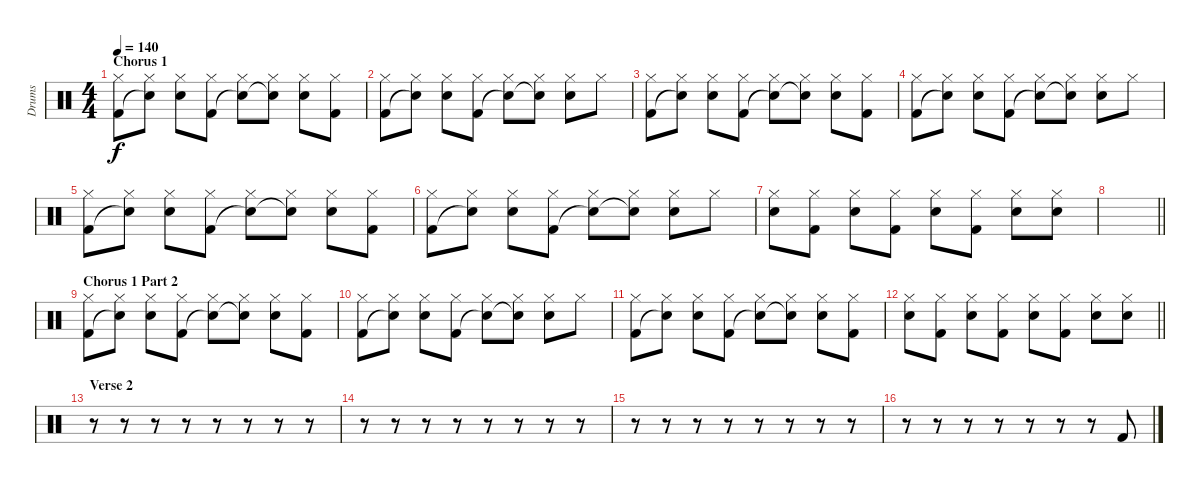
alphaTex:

\track ("Drums" "Drums") {instrument percussion}
\staff {score}
\articulation defaults
\ts (4 4)
\section ("" "Chorus 1")
\tempo 140
\clef neutral
\ks c
("Hi-Hat (closed)" "Kick (hit) 2").8{dy f} ("Hi-Hat (closed)" "Snare (hit)"{t}).8 ("Hi-Hat (closed)" "Snare (hit) 2").8 ("Hi-Hat (closed)" "Kick (hit) 2").8 ("Hi-Hat (closed)" "Snare (hit)"{t}).8 ("Hi-Hat (closed)" "Snare (hit) 2"{t}).8 ("Hi-Hat (closed)" "Snare (hit) 2").8 ("Hi-Hat (closed)" "Kick (hit) 2").8 |
("Hi-Hat (closed)" "Kick (hit) 2").8 ("Hi-Hat (closed)" "Snare (hit)"{t}).8 ("Hi-Hat (closed)" "Snare (hit) 2").8 ("Hi-Hat (closed)" "Kick (hit) 2").8 ("Hi-Hat (closed)" "Snare (hit)"{t}).8 ("Hi-Hat (closed)" "Snare (hit) 2"{t}).8 ("Hi-Hat (closed)" "Snare (hit) 2").8 "Hi-Hat (closed)".8 |
("Hi-Hat (closed)" "Kick (hit) 2").8 ("Hi-Hat (closed)" "Snare (hit)"{t}).8 ("Hi-Hat (closed)" "Snare (hit) 2").8 ("Hi-Hat (closed)" "Kick (hit) 2").8 ("Hi-Hat (closed)" "Snare (hit)"{t}).8 ("Hi-Hat (closed)" "Snare (hit) 2"{t}).8 ("Hi-Hat (closed)" "Snare (hit) 2").8 ("Hi-Hat (closed)" "Kick (hit) 2").8 |
("Hi-Hat (closed)" "Kick (hit) 2").8 ("Hi-Hat (closed)" "Snare (hit)"{t}).8 ("Hi-Hat (closed)" "Snare (hit) 2").8 ("Hi-Hat (closed)" "Kick (hit) 2").8 ("Hi-Hat (closed)" "Snare (hit)"{t}).8 ("Hi-Hat (closed)" "Snare (hit) 2"{t}).8 ("Hi-Hat (closed)" "Snare (hit) 2").8 "Hi-Hat (closed)".8 |
("Hi-Hat (closed)" "Kick (hit) 2").8 ("Hi-Hat (closed)" "Snare (hit)"{t}).8 ("Hi-Hat (closed)" "Snare (hit) 2").8 ("Hi-Hat (closed)" "Kick (hit) 2").8 ("Hi-Hat (closed)" "Snare (hit)"{t}).8 ("Hi-Hat (closed)" "Snare (hit) 2"{t}).8 ("Hi-Hat (closed)" "Snare (hit) 2").8 ("Hi-Hat (closed)" "Kick (hit) 2").8 |
("Hi-Hat (closed)" "Kick (hit) 2").8 ("Hi-Hat (closed)" "Snare (hit)"{t}).8 ("Hi-Hat (closed)" "Snare (hit) 2").8 ("Hi-Hat (closed)" "Kick (hit) 2").8 ("Hi-Hat (closed)" "Snare (hit)"{t}).8 ("Hi-Hat (closed)" "Snare (hit) 2"{t}).8 ("Hi-Hat (closed)" "Snare (hit) 2").8 "Hi-Hat (closed)".8 |
("Hi-Hat (closed)" "Snare (hit) 2").8 ("Hi-Hat (closed)" "Kick (hit) 2").8 ("Hi-Hat (closed)" "Snare (hit) 2").8 ("Hi-Hat (closed)" "Kick (hit) 2").8 ("Hi-Hat (closed)" "Snare (hit) 2").8 ("Hi-Hat (closed)" "Kick (hit) 2").8 ("Hi-Hat (closed)" "Snare (hit) 2").8 ("Hi-Hat (closed)" "Snare (hit) 2").8 |
\barLineRight lightlight
|
\section ("" "Chorus 1 Part 2")
("Hi-Hat (closed)" "Kick (hit) 2").8 ("Hi-Hat (closed)" "Snare (hit)"{t}).8 ("Hi-Hat (closed)" "Snare (hit) 2").8 ("Hi-Hat (closed)" "Kick (hit) 2").8 ("Hi-Hat (closed)" "Snare (hit)"{t}).8 ("Hi-Hat (closed)" "Snare (hit) 2"{t}).8 ("Hi-Hat (closed)" "Snare (hit) 2").8 ("Hi-Hat (closed)" "Kick (hit) 2").8 |
("Hi-Hat (closed)" "Kick (hit) 2").8 ("Hi-Hat (closed)" "Snare (hit)"{t}).8 ("Hi-Hat (closed)" "Snare (hit) 2").8 ("Hi-Hat (closed)" "Kick (hit) 2").8 ("Hi-Hat (closed)" "Snare (hit)"{t}).8 ("Hi-Hat (closed)" "Snare (hit) 2"{t}).8 ("Hi-Hat (closed)" "Snare (hit) 2").8 "Hi-Hat (closed)".8 |
("Hi-Hat (closed)" "Kick (hit) 2").8 ("Hi-Hat (closed)" "Snare (hit)"{t}).8 ("Hi-Hat (closed)" "Snare (hit) 2").8 ("Hi-Hat (closed)" "Kick (hit) 2").8 ("Hi-Hat (closed)" "Snare (hit)"{t}).8 ("Hi-Hat (closed)" "Snare (hit) 2"{t}).8 ("Hi-Hat (closed)" "Snare (hit) 2").8 ("Hi-Hat (closed)" "Kick (hit) 2").8 |
\barLineRight lightlight
("Hi-Hat (closed)" "Snare (hit) 2").8 ("Hi-Hat (closed)" "Kick (hit) 2").8 ("Hi-Hat (closed)" "Snare (hit) 2").8 ("Hi-Hat (closed)" "Kick (hit) 2").8 ("Hi-Hat (closed)" "Snare (hit) 2").8 ("Hi-Hat (closed)" "Kick (hit) 2").8 ("Hi-Hat (closed)" "Snare (hit) 2").8 ("Hi-Hat (closed)" "Snare (hit) 2").8 |
\section ("" "Verse 2")
r.8 r.8 r.8 r.8 r.8 r.8 r.8 r.8 |
r.8 r.8 r.8 r.8 r.8 r.8 r.8 r.8 |
r.8 r.8 r.8 r.8 r.8 r.8 r.8 r.8 |
r.8 r.8 r.8 r.8 r.8 r.8 r.8 "Kick (hit) 2".8
